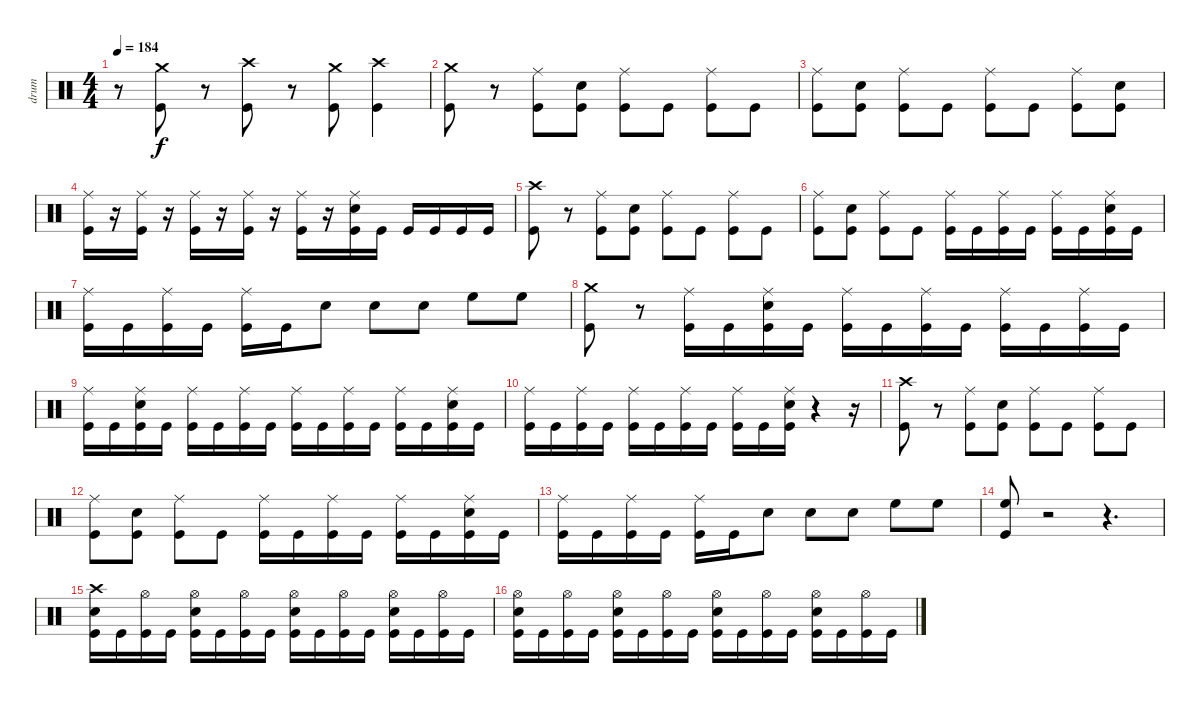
\track ("drum" "drum") {instrument percussion}
\staff {score}
\articulation defaults
\ts (4 4)
\tempo 184
\clef neutral
\ks c
r.8{dy f} ("Crash medium (hit)" "Kick (hit)").8 r.8 ("Crash high (hit)" "Kick (hit)").8 r.8 ("Crash medium (hit)" "Kick (hit)").8 ("Crash high (hit)" "Kick (hit)").4 |
("Crash medium (hit)" "Kick (hit)").8 r.8 ("Ride (middle)" "Kick (hit)").8 ("Electric Snare (hit)" "Kick (hit)").8 ("Ride (middle)" "Kick (hit)").8 "Kick (hit)".8 ("Ride (middle)" "Kick (hit)").8 "Kick (hit)".8 |
("Ride (middle)" "Kick (hit)").8 ("Electric Snare (hit)" "Kick (hit)").8 ("Ride (middle)" "Kick (hit)").8 "Kick (hit)".8 ("Ride (middle)" "Kick (hit)").8 "Kick (hit)".8 ("Ride (middle)" "Kick (hit)").8 ("Electric Snare (hit)" "Kick (hit)").8 |
("Ride (middle)" "Kick (hit)").16 r.16 ("Ride (middle)" "Kick (hit)").16 r.16 ("Ride (middle)" "Kick (hit)").16 r.16 ("Ride (middle)" "Kick (hit)").16 r.16 ("Ride (middle)" "Kick (hit)").16 r.16 ("Ride (middle)" "Electric Snare (hit)" "Kick (hit)").16 "Kick (hit)".16 "Kick (hit)".16 "Kick (hit)".16 "Kick (hit)".16 "Kick (hit)".16 |
("Crash high (hit)" "Kick (hit)").8 r.8 ("Ride (middle)" "Kick (hit)").8 ("Electric Snare (hit)" "Kick (hit)").8 ("Ride (middle)" "Kick (hit)").8 "Kick (hit)".8 ("Ride (middle)" "Kick (hit)").8 "Kick (hit)".8 |
("Ride (middle)" "Kick (hit)").8 ("Electric Snare (hit)" "Kick (hit)").8 ("Ride (middle)" "Kick (hit)").8 "Kick (hit)".8 ("Ride (middle)" "Kick (hit)").16 "Kick (hit)".16 ("Ride (middle)" "Kick (hit)").16 "Kick (hit)".16 ("Ride (middle)" "Kick (hit)").16 "Kick (hit)".16 ("Ride (middle)" "Electric Snare (hit)" "Kick (hit)").16 "Kick (hit)".16 |
("Ride (middle)" "Kick (hit)").16 "Kick (hit)".16 ("Ride (middle)" "Kick (hit)").16 "Kick (hit)".16 ("Ride (middle)" "Kick (hit)").16 "Kick (hit)".16 "Electric Snare (hit)".8 "Electric Snare (hit)".8 "Electric Snare (hit)".8 "High Floor Tom (hit)".8 "High Floor Tom (hit)".8 |
("Crash medium (hit)" "Kick (hit)").8 r.8 ("Ride (middle)" "Kick (hit)").16 "Kick (hit)".16 ("Ride (middle)" "Electric Snare (hit)" "Kick (hit)").16 "Kick (hit)".16 ("Ride (middle)" "Kick (hit)").16 "Kick (hit)".16 ("Ride (middle)" "Kick (hit)").16 "Kick (hit)".16 ("Ride (middle)" "Kick (hit)").16 "Kick (hit)".16 ("Ride (middle)" "Kick (hit)").16 "Kick (hit)".16 |
("Ride (middle)" "Kick (hit)").16 "Kick (hit)".16 ("Ride (middle)" "Electric Snare (hit)" "Kick (hit)").16 "Kick (hit)".16 ("Ride (middle)" "Kick (hit)").16 "Kick (hit)".16 ("Ride (middle)" "Kick (hit)").16 "Kick (hit)".16 ("Ride (middle)" "Kick (hit)").16 "Kick (hit)".16 ("Ride (middle)" "Kick (hit)").16 "Kick (hit)".16 ("Ride (middle)" "Kick (hit)").16 "Kick (hit)".16 ("Ride (middle)" "Electric Snare (hit)" "Kick (hit)").16 "Kick (hit)".16 |
("Ride (middle)" "Kick (hit)").16 "Kick (hit)".16 ("Ride (middle)" "Kick (hit)").16 "Kick (hit)".16 ("Ride (middle)" "Kick (hit)").16 "Kick (hit)".16 ("Ride (middle)" "Kick (hit)").16 "Kick (hit)".16 ("Ride (middle)" "Kick (hit)").16 "Kick (hit)".16 ("Ride (middle)" "Electric Snare (hit)" "Kick (hit)").16 r.4 r.16 |
("Crash high (hit)" "Kick (hit)").8 r.8 ("Ride (middle)" "Kick (hit)").8 ("Electric Snare (hit)" "Kick (hit)").8 ("Ride (middle)" "Kick (hit)").8 "Kick (hit)".8 ("Ride (middle)" "Kick (hit)").8 "Kick (hit)".8 |
("Ride (middle)" "Kick (hit)").8 ("Electric Snare (hit)" "Kick (hit)").8 ("Ride (middle)" "Kick (hit)").8 "Kick (hit)".8 ("Ride (middle)" "Kick (hit)").16 "Kick (hit)".16 ("Ride (middle)" "Kick (hit)").16 "Kick (hit)".16 ("Ride (middle)" "Kick (hit)").16 "Kick (hit)".16 ("Ride (middle)" "Electric Snare (hit)" "Kick (hit)").16 "Kick (hit)".16 |
("Ride (middle)" "Kick (hit)").16 "Kick (hit)".16 ("Ride (middle)" "Kick (hit)").16 "Kick (hit)".16 ("Ride (middle)" "Kick (hit)").16 "Kick (hit)".16 "Electric Snare (hit)".8 "Electric Snare (hit)".8 "Electric Snare (hit)".8 "High Floor Tom (hit)".8 "High Floor Tom (hit)".8 |
("High Floor Tom (hit)" "Kick (hit)").8 r.2 r.4{d} |
("Crash high (hit)" "Electric Snare (hit)" "Kick (hit)").16 "Kick (hit)".16 ("Hi-Hat (open)" "Kick (hit)").16 "Kick (hit)".16 ("Hi-Hat (open)" "Electric Snare (hit)" "Kick (hit)").16 "Kick (hit)".16 ("Hi-Hat (open)" "Kick (hit)").16 "Kick (hit)".16 ("Hi-Hat (open)" "Electric Snare (hit)" "Kick (hit)").16 "Kick (hit)".16 ("Hi-Hat (open)" "Kick (hit)").16 "Kick (hit)".16 ("Hi-Hat (open)" "Electric Snare (hit)" "Kick (hit)").16 "Kick (hit)".16 ("Hi-Hat (open)" "Kick (hit)").16 "Kick (hit)".16 |
("Hi-Hat (open)" "Electric Snare (hit)" "Kick (hit)").16 "Kick (hit)".16 ("Hi-Hat (open)" "Kick (hit)").16 "Kick (hit)".16 ("Hi-Hat (open)" "Electric Snare (hit)" "Kick (hit)").16 "Kick (hit)".16 ("Hi-Hat (open)" "Kick (hit)").16 "Kick (hit)".16 ("Hi-Hat (open)" "Electric Snare (hit)" "Kick (hit)").16 "Kick (hit)".16 ("Hi-Hat (open)" "Kick (hit)").16 "Kick (hit)".16 ("Hi-Hat (open)" "Electric Snare (hit)" "Kick (hit)").16 "Kick (hit)".16 ("Hi-Hat (open)" "Kick (hit)").16 "Kick (hit)".16
